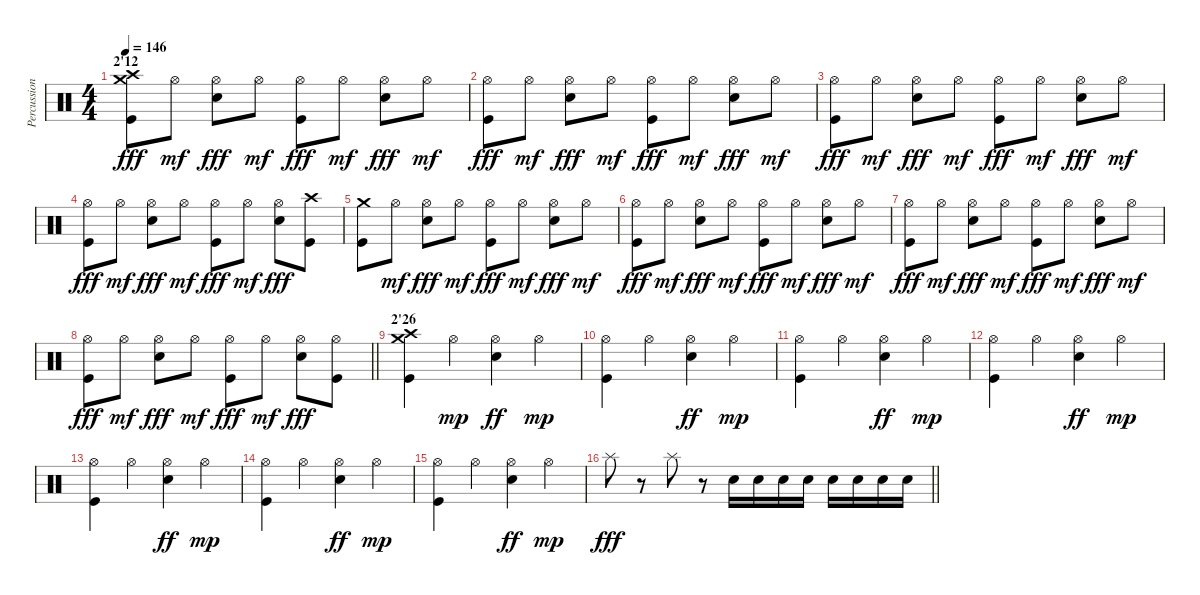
\track ("Percussions" "Percussion") {instrument percussion}
\staff {score}
\articulation defaults
\ts (4 4)
\section ("" "2'12")
\tempo 146
\clef neutral
\ks c
("Crash high (hit)" "Crash medium (hit)" "Kick (hit)").8{dy fff} "Hi-Hat (open)".8{dy mf} ("Hi-Hat (open)" "Snare (hit) 2").8{dy fff} "Hi-Hat (open)".8{dy mf} ("Hi-Hat (open)" "Kick (hit)").8{dy fff} "Hi-Hat (open)".8{dy mf} ("Hi-Hat (open)" "Snare (hit) 2").8{dy fff} "Hi-Hat (open)".8{dy mf} |
("Hi-Hat (open)" "Kick (hit)").8{dy fff} "Hi-Hat (open)".8{dy mf} ("Hi-Hat (open)" "Snare (hit) 2").8{dy fff} "Hi-Hat (open)".8{dy mf} ("Hi-Hat (open)" "Kick (hit)").8{dy fff} "Hi-Hat (open)".8{dy mf} ("Hi-Hat (open)" "Snare (hit) 2").8{dy fff} "Hi-Hat (open)".8{dy mf} |
("Hi-Hat (open)" "Kick (hit)").8{dy fff} "Hi-Hat (open)".8{dy mf} ("Hi-Hat (open)" "Snare (hit) 2").8{dy fff} "Hi-Hat (open)".8{dy mf} ("Hi-Hat (open)" "Kick (hit)").8{dy fff} "Hi-Hat (open)".8{dy mf} ("Hi-Hat (open)" "Snare (hit) 2").8{dy fff} "Hi-Hat (open)".8{dy mf} |
("Hi-Hat (open)" "Kick (hit)").8{dy fff} "Hi-Hat (open)".8{dy mf} ("Hi-Hat (open)" "Snare (hit) 2").8{dy fff} "Hi-Hat (open)".8{dy mf} ("Hi-Hat (open)" "Kick (hit)").8{dy fff} "Hi-Hat (open)".8{dy mf} ("Hi-Hat (open)" "Snare (hit) 2").8{dy fff} ("Crash high (hit)" "Kick (hit)").8 |
("Crash medium (hit)" "Kick (hit)").8 "Hi-Hat (open)".8{dy mf} ("Hi-Hat (open)" "Snare (hit) 2").8{dy fff} "Hi-Hat (open)".8{dy mf} ("Hi-Hat (open)" "Kick (hit)").8{dy fff} "Hi-Hat (open)".8{dy mf} ("Hi-Hat (open)" "Snare (hit) 2").8{dy fff} "Hi-Hat (open)".8{dy mf} |
("Hi-Hat (open)" "Kick (hit)").8{dy fff} "Hi-Hat (open)".8{dy mf} ("Hi-Hat (open)" "Snare (hit) 2").8{dy fff} "Hi-Hat (open)".8{dy mf} ("Hi-Hat (open)" "Kick (hit)").8{dy fff} "Hi-Hat (open)".8{dy mf} ("Hi-Hat (open)" "Snare (hit) 2").8{dy fff} "Hi-Hat (open)".8{dy mf} |
("Hi-Hat (open)" "Kick (hit)").8{dy fff} "Hi-Hat (open)".8{dy mf} ("Hi-Hat (open)" "Snare (hit) 2").8{dy fff} "Hi-Hat (open)".8{dy mf} ("Hi-Hat (open)" "Kick (hit)").8{dy fff} "Hi-Hat (open)".8{dy mf} ("Hi-Hat (open)" "Snare (hit) 2").8{dy fff} "Hi-Hat (open)".8{dy mf} |
\barLineRight lightlight
("Hi-Hat (open)" "Kick (hit)").8{dy fff} "Hi-Hat (open)".8{dy mf} ("Hi-Hat (open)" "Snare (hit) 2").8{dy fff} "Hi-Hat (open)".8{dy mf} ("Hi-Hat (open)" "Kick (hit)").8{dy fff} "Hi-Hat (open)".8{dy mf} ("Hi-Hat (open)" "Snare (hit) 2").8{dy fff} ("Hi-Hat (open)" "Kick (hit)").8 |
\section ("" "2'26")
("Crash high (hit)" "Crash medium (hit)" "Kick (hit)").4 "Hi-Hat (open)".4{dy mp} ("Hi-Hat (open)" "Snare (hit) 2").4{dy ff} "Hi-Hat (open)".4{dy mp} |
("Hi-Hat (open)" "Kick (hit)").4 "Hi-Hat (open)".4 ("Hi-Hat (open)" "Snare (hit) 2").4{dy ff} "Hi-Hat (open)".4{dy mp} |
("Hi-Hat (open)" "Kick (hit)").4 "Hi-Hat (open)".4 ("Hi-Hat (open)" "Snare (hit) 2").4{dy ff} "Hi-Hat (open)".4{dy mp} |
("Hi-Hat (open)" "Kick (hit)").4 "Hi-Hat (open)".4 ("Hi-Hat (open)" "Snare (hit) 2").4{dy ff} "Hi-Hat (open)".4{dy mp} |
("Hi-Hat (open)" "Kick (hit)").4 "Hi-Hat (open)".4 ("Hi-Hat (open)" "Snare (hit) 2").4{dy ff} "Hi-Hat (open)".4{dy mp} |
("Hi-Hat (open)" "Kick (hit)").4 "Hi-Hat (open)".4 ("Hi-Hat (open)" "Snare (hit) 2").4{dy ff} "Hi-Hat (open)".4{dy mp} |
("Hi-Hat (open)" "Kick (hit)").4 "Hi-Hat (open)".4 ("Hi-Hat (open)" "Snare (hit) 2").4{dy ff} "Hi-Hat (open)".4{dy mp} |
\barLineRight lightlight "Splash (hit)".8{dy fff}
r.8 "Splash (hit)".8 r.8 "Snare (hit) 2".16 "Snare (hit) 2".16 "Snare (hit) 2".16 "Snare (hit) 2".16 "Snare (hit) 2".16 "Snare (hit) 2".16 "Snare (hit) 2".16 "Snare (hit) 2".16
